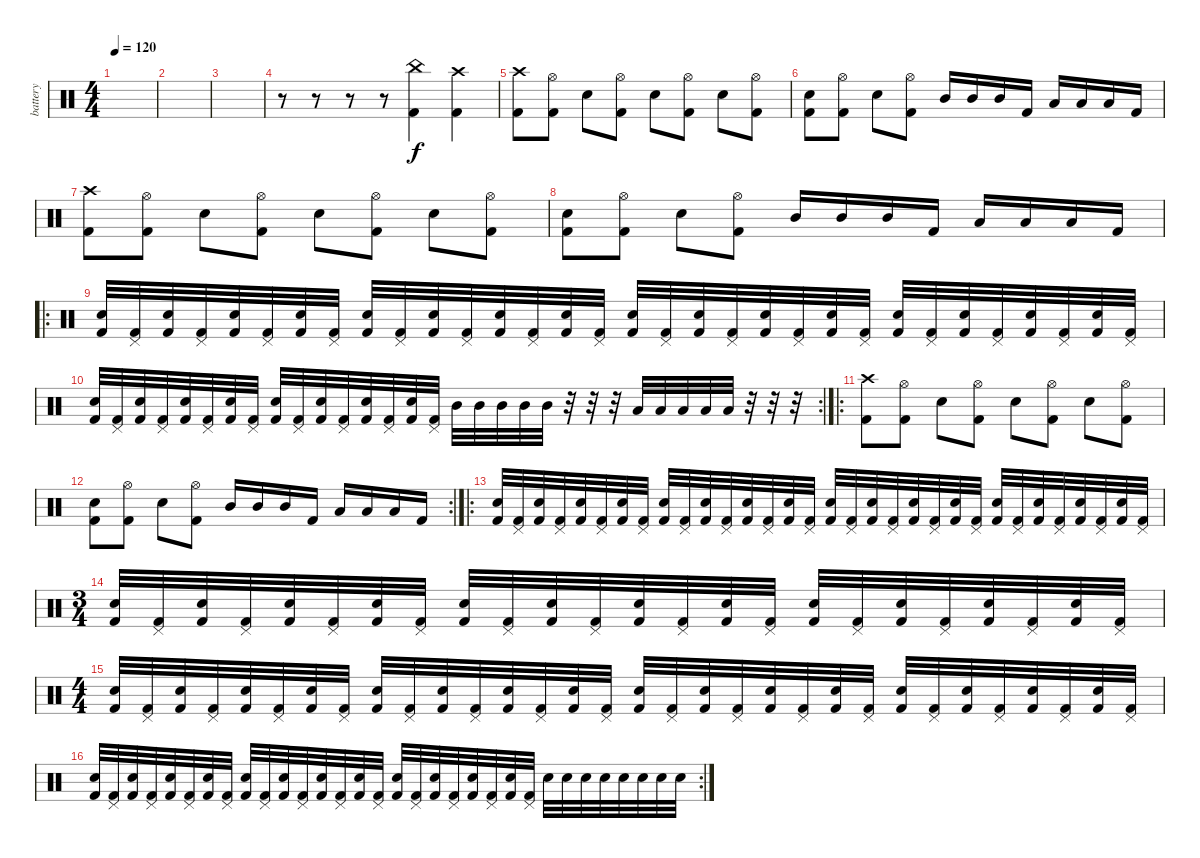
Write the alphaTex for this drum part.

\track ("battery" "battery") {instrument percussion}
\staff {score}
\articulation defaults
\ts (4 4)
\tempo 120
\clef neutral
\ks c
|
|
|
r.8 r.8 r.8 r.8 ("China (hit)" "Kick (hit) 2").4 ("Crash high (hit)" "Kick (hit) 2").4 |
("Crash high (hit)" "Kick (hit) 2").8 ("Hi-Hat (open)" "Kick (hit) 2").8 "Snare (hit) 2".8 ("Hi-Hat (open)" "Kick (hit) 2").8 "Snare (hit) 2".8 ("Hi-Hat (open)" "Kick (hit) 2").8 "Snare (hit) 2".8 ("Hi-Hat (open)" "Kick (hit) 2").8 |
("Snare (hit) 2" "Kick (hit) 2").8 ("Hi-Hat (open)" "Kick (hit) 2").8 "Snare (hit) 2".8 ("Hi-Hat (open)" "Kick (hit) 2").8 "Mid Tom (hit)".16 "Mid Tom (hit)".16 "Mid Tom (hit)".16 "Kick (hit) 2".16 "Low Tom (hit)".16 "Low Tom (hit)".16 "Low Tom (hit)".16 "Kick (hit) 2".16 |
("Crash high (hit)" "Kick (hit) 2").8 ("Hi-Hat (open)" "Kick (hit) 2").8 "Snare (hit) 2".8 ("Hi-Hat (open)" "Kick (hit) 2").8 "Snare (hit) 2".8 ("Hi-Hat (open)" "Kick (hit) 2").8 "Snare (hit) 2".8 ("Hi-Hat (open)" "Kick (hit) 2").8 |
("Snare (hit) 2" "Kick (hit) 2").8 ("Hi-Hat (open)" "Kick (hit) 2").8 "Snare (hit) 2".8 ("Hi-Hat (open)" "Kick (hit) 2").8 "Mid Tom (hit)".16 "Mid Tom (hit)".16 "Mid Tom (hit)".16 "Kick (hit) 2".16 "Low Tom (hit)".16 "Low Tom (hit)".16 "Low Tom (hit)".16 "Kick (hit) 2".16 |
\ro
("Snare (hit) 2" "Kick (hit) 2").32 ("Pedal Hi-Hat (hit)" "Kick (hit) 2").32 ("Snare (hit) 2" "Kick (hit) 2").32 ("Pedal Hi-Hat (hit)" "Kick (hit) 2").32 ("Snare (hit) 2" "Kick (hit) 2").32 ("Pedal Hi-Hat (hit)" "Kick (hit) 2").32 ("Snare (hit) 2" "Kick (hit) 2").32 ("Pedal Hi-Hat (hit)" "Kick (hit) 2").32 ("Snare (hit) 2" "Kick (hit) 2").32 ("Pedal Hi-Hat (hit)" "Kick (hit) 2").32 ("Snare (hit) 2" "Kick (hit) 2").32 ("Pedal Hi-Hat (hit)" "Kick (hit) 2").32 ("Snare (hit) 2" "Kick (hit) 2").32 ("Pedal Hi-Hat (hit)" "Kick (hit) 2").32 ("Snare (hit) 2" "Kick (hit) 2").32 ("Pedal Hi-Hat (hit)" "Kick (hit) 2").32 ("Snare (hit) 2" "Kick (hit) 2").32 ("Pedal Hi-Hat (hit)" "Kick (hit) 2").32 ("Snare (hit) 2" "Kick (hit) 2").32 ("Pedal Hi-Hat (hit)" "Kick (hit) 2").32 ("Snare (hit) 2" "Kick (hit) 2").32 ("Pedal Hi-Hat (hit)" "Kick (hit) 2").32 ("Snare (hit) 2" "Kick (hit) 2").32 ("Pedal Hi-Hat (hit)" "Kick (hit) 2").32 ("Snare (hit) 2" "Kick (hit) 2").32 ("Pedal Hi-Hat (hit)" "Kick (hit) 2").32 ("Snare (hit) 2" "Kick (hit) 2").32 ("Pedal Hi-Hat (hit)" "Kick (hit) 2").32 ("Snare (hit) 2" "Kick (hit) 2").32 ("Pedal Hi-Hat (hit)" "Kick (hit) 2").32 ("Snare (hit) 2" "Kick (hit) 2").32 ("Pedal Hi-Hat (hit)" "Kick (hit) 2").32 |
\rc 2
("Snare (hit) 2" "Kick (hit) 2").32 ("Pedal Hi-Hat (hit)" "Kick (hit) 2").32 ("Snare (hit) 2" "Kick (hit) 2").32 ("Pedal Hi-Hat (hit)" "Kick (hit) 2").32 ("Snare (hit) 2" "Kick (hit) 2").32 ("Pedal Hi-Hat (hit)" "Kick (hit) 2").32 ("Snare (hit) 2" "Kick (hit) 2").32 ("Pedal Hi-Hat (hit)" "Kick (hit) 2").32 ("Snare (hit) 2" "Kick (hit) 2").32 ("Pedal Hi-Hat (hit)" "Kick (hit) 2").32 ("Snare (hit) 2" "Kick (hit) 2").32 ("Pedal Hi-Hat (hit)" "Kick (hit) 2").32 ("Snare (hit) 2" "Kick (hit) 2").32 ("Pedal Hi-Hat (hit)" "Kick (hit) 2").32 ("Snare (hit) 2" "Kick (hit) 2").32 ("Pedal Hi-Hat (hit)" "Kick (hit) 2").32 "Mid Tom (hit)".32 "Mid Tom (hit)".32 "Mid Tom (hit)".32 "Mid Tom (hit)".32 "Mid Tom (hit)".32 r.32 r.32 r.32 "Low Tom (hit)".32 "Low Tom (hit)".32 "Low Tom (hit)".32 "Low Tom (hit)".32 "Low Tom (hit)".32 r.32 r.32 r.32 |
\ro
("Crash high (hit)" "Kick (hit) 2").8 ("Hi-Hat (open)" "Kick (hit) 2").8 "Snare (hit) 2".8 ("Hi-Hat (open)" "Kick (hit) 2").8 "Snare (hit) 2".8 ("Hi-Hat (open)" "Kick (hit) 2").8 "Snare (hit) 2".8 ("Hi-Hat (open)" "Kick (hit) 2").8 |
\rc 2
("Snare (hit) 2" "Kick (hit) 2").8 ("Hi-Hat (open)" "Kick (hit) 2").8 "Snare (hit) 2".8 ("Hi-Hat (open)" "Kick (hit) 2").8 "Mid Tom (hit)".16 "Mid Tom (hit)".16 "Mid Tom (hit)".16 "Kick (hit) 2".16 "Low Tom (hit)".16 "Low Tom (hit)".16 "Low Tom (hit)".16 "Kick (hit) 2".16 |
\ro
("Snare (hit) 2" "Kick (hit) 2").32 ("Pedal Hi-Hat (hit)" "Kick (hit) 2").32 ("Snare (hit) 2" "Kick (hit) 2").32 ("Pedal Hi-Hat (hit)" "Kick (hit) 2").32 ("Snare (hit) 2" "Kick (hit) 2").32 ("Pedal Hi-Hat (hit)" "Kick (hit) 2").32 ("Snare (hit) 2" "Kick (hit) 2").32 ("Pedal Hi-Hat (hit)" "Kick (hit) 2").32 ("Snare (hit) 2" "Kick (hit) 2").32 ("Pedal Hi-Hat (hit)" "Kick (hit) 2").32 ("Snare (hit) 2" "Kick (hit) 2").32 ("Pedal Hi-Hat (hit)" "Kick (hit) 2").32 ("Snare (hit) 2" "Kick (hit) 2").32 ("Pedal Hi-Hat (hit)" "Kick (hit) 2").32 ("Snare (hit) 2" "Kick (hit) 2").32 ("Pedal Hi-Hat (hit)" "Kick (hit) 2").32 ("Snare (hit) 2" "Kick (hit) 2").32 ("Pedal Hi-Hat (hit)" "Kick (hit) 2").32 ("Snare (hit) 2" "Kick (hit) 2").32 ("Pedal Hi-Hat (hit)" "Kick (hit) 2").32 ("Snare (hit) 2" "Kick (hit) 2").32 ("Pedal Hi-Hat (hit)" "Kick (hit) 2").32 ("Snare (hit) 2" "Kick (hit) 2").32 ("Pedal Hi-Hat (hit)" "Kick (hit) 2").32 ("Snare (hit) 2" "Kick (hit) 2").32 ("Pedal Hi-Hat (hit)" "Kick (hit) 2").32 ("Snare (hit) 2" "Kick (hit) 2").32 ("Pedal Hi-Hat (hit)" "Kick (hit) 2").32 ("Snare (hit) 2" "Kick (hit) 2").32 ("Pedal Hi-Hat (hit)" "Kick (hit) 2").32 ("Snare (hit) 2" "Kick (hit) 2").32 ("Pedal Hi-Hat (hit)" "Kick (hit) 2").32 |
\ts (3 4)
("Snare (hit) 2" "Kick (hit) 2").32 ("Pedal Hi-Hat (hit)" "Kick (hit) 2").32 ("Snare (hit) 2" "Kick (hit) 2").32 ("Pedal Hi-Hat (hit)" "Kick (hit) 2").32 ("Snare (hit) 2" "Kick (hit) 2").32 ("Pedal Hi-Hat (hit)" "Kick (hit) 2").32 ("Snare (hit) 2" "Kick (hit) 2").32 ("Pedal Hi-Hat (hit)" "Kick (hit) 2").32 ("Snare (hit) 2" "Kick (hit) 2").32 ("Pedal Hi-Hat (hit)" "Kick (hit) 2").32 ("Snare (hit) 2" "Kick (hit) 2").32 ("Pedal Hi-Hat (hit)" "Kick (hit) 2").32 ("Snare (hit) 2" "Kick (hit) 2").32 ("Pedal Hi-Hat (hit)" "Kick (hit) 2").32 ("Snare (hit) 2" "Kick (hit) 2").32 ("Pedal Hi-Hat (hit)" "Kick (hit) 2").32 ("Snare (hit) 2" "Kick (hit) 2").32 ("Pedal Hi-Hat (hit)" "Kick (hit) 2").32 ("Snare (hit) 2" "Kick (hit) 2").32 ("Pedal Hi-Hat (hit)" "Kick (hit) 2").32 ("Snare (hit) 2" "Kick (hit) 2").32 ("Pedal Hi-Hat (hit)" "Kick (hit) 2").32 ("Snare (hit) 2" "Kick (hit) 2").32 ("Pedal Hi-Hat (hit)" "Kick (hit) 2").32 |
\ts (4 4)
("Snare (hit) 2" "Kick (hit) 2").32 ("Pedal Hi-Hat (hit)" "Kick (hit) 2").32 ("Snare (hit) 2" "Kick (hit) 2").32 ("Pedal Hi-Hat (hit)" "Kick (hit) 2").32 ("Snare (hit) 2" "Kick (hit) 2").32 ("Pedal Hi-Hat (hit)" "Kick (hit) 2").32 ("Snare (hit) 2" "Kick (hit) 2").32 ("Pedal Hi-Hat (hit)" "Kick (hit) 2").32 ("Snare (hit) 2" "Kick (hit) 2").32 ("Pedal Hi-Hat (hit)" "Kick (hit) 2").32 ("Snare (hit) 2" "Kick (hit) 2").32 ("Pedal Hi-Hat (hit)" "Kick (hit) 2").32 ("Snare (hit) 2" "Kick (hit) 2").32 ("Pedal Hi-Hat (hit)" "Kick (hit) 2").32 ("Snare (hit) 2" "Kick (hit) 2").32 ("Pedal Hi-Hat (hit)" "Kick (hit) 2").32 ("Snare (hit) 2" "Kick (hit) 2").32 ("Pedal Hi-Hat (hit)" "Kick (hit) 2").32 ("Snare (hit) 2" "Kick (hit) 2").32 ("Pedal Hi-Hat (hit)" "Kick (hit) 2").32 ("Snare (hit) 2" "Kick (hit) 2").32 ("Pedal Hi-Hat (hit)" "Kick (hit) 2").32 ("Snare (hit) 2" "Kick (hit) 2").32 ("Pedal Hi-Hat (hit)" "Kick (hit) 2").32 ("Snare (hit) 2" "Kick (hit) 2").32 ("Pedal Hi-Hat (hit)" "Kick (hit) 2").32 ("Snare (hit) 2" "Kick (hit) 2").32 ("Pedal Hi-Hat (hit)" "Kick (hit) 2").32 ("Snare (hit) 2" "Kick (hit) 2").32 ("Pedal Hi-Hat (hit)" "Kick (hit) 2").32 ("Snare (hit) 2" "Kick (hit) 2").32 ("Pedal Hi-Hat (hit)" "Kick (hit) 2").32 |
\rc 2
("Snare (hit) 2" "Kick (hit) 2").32 ("Pedal Hi-Hat (hit)" "Kick (hit) 2").32 ("Snare (hit) 2" "Kick (hit) 2").32 ("Pedal Hi-Hat (hit)" "Kick (hit) 2").32 ("Snare (hit) 2" "Kick (hit) 2").32 ("Pedal Hi-Hat (hit)" "Kick (hit) 2").32 ("Snare (hit) 2" "Kick (hit) 2").32 ("Pedal Hi-Hat (hit)" "Kick (hit) 2").32 ("Snare (hit) 2" "Kick (hit) 2").32 ("Pedal Hi-Hat (hit)" "Kick (hit) 2").32 ("Snare (hit) 2" "Kick (hit) 2").32 ("Pedal Hi-Hat (hit)" "Kick (hit) 2").32 ("Snare (hit) 2" "Kick (hit) 2").32 ("Pedal Hi-Hat (hit)" "Kick (hit) 2").32 ("Snare (hit) 2" "Kick (hit) 2").32 ("Pedal Hi-Hat (hit)" "Kick (hit) 2").32 ("Snare (hit) 2" "Kick (hit) 2").32 ("Pedal Hi-Hat (hit)" "Kick (hit) 2").32 ("Snare (hit) 2" "Kick (hit) 2").32 ("Pedal Hi-Hat (hit)" "Kick (hit) 2").32 ("Snare (hit) 2" "Kick (hit) 2").32 ("Pedal Hi-Hat (hit)" "Kick (hit) 2").32 ("Snare (hit) 2" "Kick (hit) 2").32 ("Pedal Hi-Hat (hit)" "Kick (hit) 2").32 "Snare (hit) 2".32 "Snare (hit) 2".32 "Snare (hit) 2".32 "Snare (hit) 2".32 "Snare (hit) 2".32 "Snare (hit) 2".32 "Snare (hit) 2".32 "Snare (hit) 2".32
